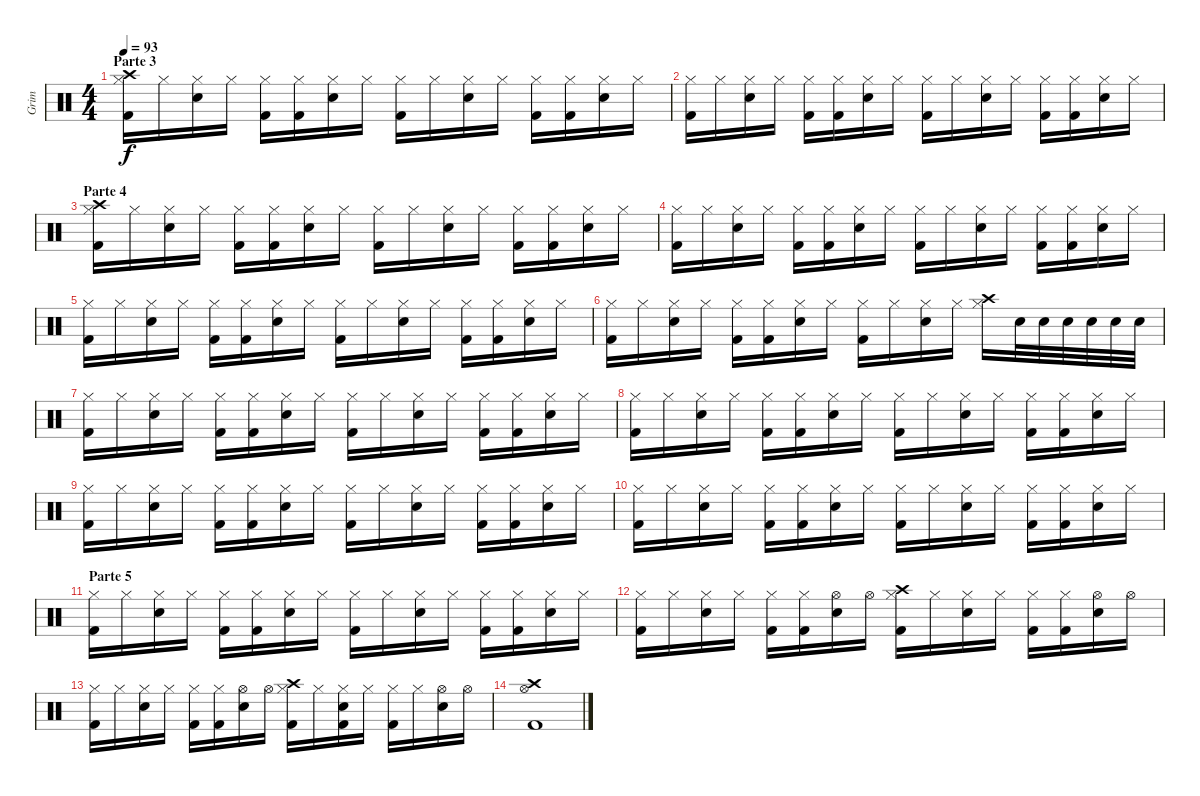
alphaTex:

\track ("Grim" "Grim") {instrument percussion}
\staff {score}
\articulation defaults
\ts (4 4)
\section ("" "Parte 3")
\tempo 93
\clef neutral
\ks c
("Crash high (hit)" "Hi-Hat (closed)" "Kick (hit) 2").16{dy f} "Hi-Hat (closed)".16 ("Snare (hit) 2" "Hi-Hat (closed)").16 "Hi-Hat (closed)".16 ("Hi-Hat (closed)" "Kick (hit) 2").16 ("Hi-Hat (closed)" "Kick (hit) 2").16 ("Snare (hit) 2" "Hi-Hat (closed)").16 "Hi-Hat (closed)".16 ("Hi-Hat (closed)" "Kick (hit) 2").16 "Hi-Hat (closed)".16 ("Snare (hit) 2" "Hi-Hat (closed)").16 "Hi-Hat (closed)".16 ("Hi-Hat (closed)" "Kick (hit) 2").16 ("Hi-Hat (closed)" "Kick (hit) 2").16 ("Snare (hit) 2" "Hi-Hat (closed)").16 "Hi-Hat (closed)".16 |
("Hi-Hat (closed)" "Kick (hit) 2").16 "Hi-Hat (closed)".16 ("Snare (hit) 2" "Hi-Hat (closed)").16 "Hi-Hat (closed)".16 ("Hi-Hat (closed)" "Kick (hit) 2").16 ("Hi-Hat (closed)" "Kick (hit) 2").16 ("Snare (hit) 2" "Hi-Hat (closed)").16 "Hi-Hat (closed)".16 ("Hi-Hat (closed)" "Kick (hit) 2").16 "Hi-Hat (closed)".16 ("Snare (hit) 2" "Hi-Hat (closed)").16 "Hi-Hat (closed)".16 ("Hi-Hat (closed)" "Kick (hit) 2").16 ("Hi-Hat (closed)" "Kick (hit) 2").16 ("Snare (hit) 2" "Hi-Hat (closed)").16 "Hi-Hat (closed)".16 |
\section ("" "Parte 4")
("Crash high (hit)" "Hi-Hat (closed)" "Kick (hit) 2").16 "Hi-Hat (closed)".16 ("Snare (hit) 2" "Hi-Hat (closed)").16 "Hi-Hat (closed)".16 ("Hi-Hat (closed)" "Kick (hit) 2").16 ("Hi-Hat (closed)" "Kick (hit) 2").16 ("Snare (hit) 2" "Hi-Hat (closed)").16 "Hi-Hat (closed)".16 ("Hi-Hat (closed)" "Kick (hit) 2").16 "Hi-Hat (closed)".16 ("Snare (hit) 2" "Hi-Hat (closed)").16 "Hi-Hat (closed)".16 ("Hi-Hat (closed)" "Kick (hit) 2").16 ("Hi-Hat (closed)" "Kick (hit) 2").16 ("Snare (hit) 2" "Hi-Hat (closed)").16 "Hi-Hat (closed)".16 |
("Hi-Hat (closed)" "Kick (hit) 2").16 "Hi-Hat (closed)".16 ("Snare (hit) 2" "Hi-Hat (closed)").16 "Hi-Hat (closed)".16 ("Hi-Hat (closed)" "Kick (hit) 2").16 ("Hi-Hat (closed)" "Kick (hit) 2").16 ("Snare (hit) 2" "Hi-Hat (closed)").16 "Hi-Hat (closed)".16 ("Hi-Hat (closed)" "Kick (hit) 2").16 "Hi-Hat (closed)".16 ("Snare (hit) 2" "Hi-Hat (closed)").16 "Hi-Hat (closed)".16 ("Hi-Hat (closed)" "Kick (hit) 2").16 ("Hi-Hat (closed)" "Kick (hit) 2").16 ("Snare (hit) 2" "Hi-Hat (closed)").16 "Hi-Hat (closed)".16 |
("Hi-Hat (closed)" "Kick (hit) 2").16 "Hi-Hat (closed)".16 ("Snare (hit) 2" "Hi-Hat (closed)").16 "Hi-Hat (closed)".16 ("Hi-Hat (closed)" "Kick (hit) 2").16 ("Hi-Hat (closed)" "Kick (hit) 2").16 ("Snare (hit) 2" "Hi-Hat (closed)").16 "Hi-Hat (closed)".16 ("Hi-Hat (closed)" "Kick (hit) 2").16 "Hi-Hat (closed)".16 ("Snare (hit) 2" "Hi-Hat (closed)").16 "Hi-Hat (closed)".16 ("Hi-Hat (closed)" "Kick (hit) 2").16 ("Hi-Hat (closed)" "Kick (hit) 2").16 ("Snare (hit) 2" "Hi-Hat (closed)").16 "Hi-Hat (closed)".16 |
("Hi-Hat (closed)" "Kick (hit) 2").16 "Hi-Hat (closed)".16 ("Snare (hit) 2" "Hi-Hat (closed)").16 "Hi-Hat (closed)".16 ("Hi-Hat (closed)" "Kick (hit) 2").16 ("Hi-Hat (closed)" "Kick (hit) 2").16 ("Snare (hit) 2" "Hi-Hat (closed)").16 "Hi-Hat (closed)".16 ("Hi-Hat (closed)" "Kick (hit) 2").16 "Hi-Hat (closed)".16 ("Snare (hit) 2" "Hi-Hat (closed)").16 "Hi-Hat (closed)".16 ("Crash high (hit)" "Hi-Hat (closed)").16 "Snare (hit) 2".32 "Snare (hit) 2".32 "Snare (hit) 2".32 "Snare (hit) 2".32 "Snare (hit) 2".32 "Snare (hit) 2".32 |
("Hi-Hat (closed)" "Kick (hit) 2").16 "Hi-Hat (closed)".16 ("Snare (hit) 2" "Hi-Hat (closed)").16 "Hi-Hat (closed)".16 ("Hi-Hat (closed)" "Kick (hit) 2").16 ("Hi-Hat (closed)" "Kick (hit) 2").16 ("Snare (hit) 2" "Hi-Hat (closed)").16 "Hi-Hat (closed)".16 ("Hi-Hat (closed)" "Kick (hit) 2").16 "Hi-Hat (closed)".16 ("Snare (hit) 2" "Hi-Hat (closed)").16 "Hi-Hat (closed)".16 ("Hi-Hat (closed)" "Kick (hit) 2").16 ("Hi-Hat (closed)" "Kick (hit) 2").16 ("Snare (hit) 2" "Hi-Hat (closed)").16 "Hi-Hat (closed)".16 |
("Hi-Hat (closed)" "Kick (hit) 2").16 "Hi-Hat (closed)".16 ("Snare (hit) 2" "Hi-Hat (closed)").16 "Hi-Hat (closed)".16 ("Hi-Hat (closed)" "Kick (hit) 2").16 ("Hi-Hat (closed)" "Kick (hit) 2").16 ("Snare (hit) 2" "Hi-Hat (closed)").16 "Hi-Hat (closed)".16 ("Hi-Hat (closed)" "Kick (hit) 2").16 "Hi-Hat (closed)".16 ("Snare (hit) 2" "Hi-Hat (closed)").16 "Hi-Hat (closed)".16 ("Hi-Hat (closed)" "Kick (hit) 2").16 ("Hi-Hat (closed)" "Kick (hit) 2").16 ("Snare (hit) 2" "Hi-Hat (closed)").16 "Hi-Hat (closed)".16 |
("Hi-Hat (closed)" "Kick (hit) 2").16 "Hi-Hat (closed)".16 ("Snare (hit) 2" "Hi-Hat (closed)").16 "Hi-Hat (closed)".16 ("Hi-Hat (closed)" "Kick (hit) 2").16 ("Hi-Hat (closed)" "Kick (hit) 2").16 ("Snare (hit) 2" "Hi-Hat (closed)").16 "Hi-Hat (closed)".16 ("Hi-Hat (closed)" "Kick (hit) 2").16 "Hi-Hat (closed)".16 ("Snare (hit) 2" "Hi-Hat (closed)").16 "Hi-Hat (closed)".16 ("Hi-Hat (closed)" "Kick (hit) 2").16 ("Hi-Hat (closed)" "Kick (hit) 2").16 ("Snare (hit) 2" "Hi-Hat (closed)").16 "Hi-Hat (closed)".16 |
("Hi-Hat (closed)" "Kick (hit) 2").16 "Hi-Hat (closed)".16 ("Snare (hit) 2" "Hi-Hat (closed)").16 "Hi-Hat (closed)".16 ("Hi-Hat (closed)" "Kick (hit) 2").16 ("Hi-Hat (closed)" "Kick (hit) 2").16 ("Snare (hit) 2" "Hi-Hat (closed)").16 "Hi-Hat (closed)".16 ("Hi-Hat (closed)" "Kick (hit) 2").16 "Hi-Hat (closed)".16 ("Snare (hit) 2" "Hi-Hat (closed)").16 "Hi-Hat (closed)".16 ("Hi-Hat (closed)" "Kick (hit) 2").16 ("Hi-Hat (closed)" "Kick (hit) 2").16 ("Snare (hit) 2" "Hi-Hat (closed)").16 "Hi-Hat (closed)".16 |
\section ("" "Parte 5")
("Hi-Hat (closed)" "Kick (hit) 2").16 "Hi-Hat (closed)".16 ("Snare (hit) 2" "Hi-Hat (closed)").16 "Hi-Hat (closed)".16 ("Hi-Hat (closed)" "Kick (hit) 2").16 ("Hi-Hat (closed)" "Kick (hit) 2").16 ("Snare (hit) 2" "Hi-Hat (closed)").16 "Hi-Hat (closed)".16 ("Hi-Hat (closed)" "Kick (hit) 2").16 "Hi-Hat (closed)".16 ("Snare (hit) 2" "Hi-Hat (closed)").16 "Hi-Hat (closed)".16 ("Hi-Hat (closed)" "Kick (hit) 2").16 ("Hi-Hat (closed)" "Kick (hit) 2").16 ("Snare (hit) 2" "Hi-Hat (closed)").16 "Hi-Hat (closed)".16 |
("Hi-Hat (closed)" "Kick (hit) 2").16 "Hi-Hat (closed)".16 ("Snare (hit) 2" "Hi-Hat (closed)").16 "Hi-Hat (closed)".16 ("Hi-Hat (closed)" "Kick (hit) 2").16 ("Hi-Hat (closed)" "Kick (hit) 2").16 ("Snare (hit) 2" "Hi-Hat (open)").16 "Hi-Hat (open)".16 ("Crash high (hit)" "Hi-Hat (closed)" "Kick (hit) 2").16 "Hi-Hat (closed)".16 ("Snare (hit) 2" "Hi-Hat (closed)").16 "Hi-Hat (closed)".16 ("Hi-Hat (closed)" "Kick (hit) 2").16 ("Hi-Hat (closed)" "Kick (hit) 2").16 ("Snare (hit) 2" "Hi-Hat (open)").16 "Hi-Hat (open)".16 |
("Hi-Hat (closed)" "Kick (hit) 2").16 "Hi-Hat (closed)".16 ("Snare (hit) 2" "Hi-Hat (closed)").16 "Hi-Hat (closed)".16 ("Hi-Hat (closed)" "Kick (hit) 2").16 ("Hi-Hat (closed)" "Kick (hit) 2").16 ("Snare (hit) 2" "Hi-Hat (open)").16 "Hi-Hat (open)".16 ("Crash high (hit)" "Hi-Hat (closed)" "Kick (hit) 2").16 "Hi-Hat (closed)".16 ("Snare (hit) 2" "Hi-Hat (closed)" "Kick (hit) 2").16 "Hi-Hat (closed)".16 ("Hi-Hat (closed)" "Kick (hit) 2").16 "Hi-Hat (closed)".16 ("Snare (hit) 2" "Hi-Hat (open)").16 "Hi-Hat (open)".16 |
("Crash high (hit)" "Hi-Hat (open)" "Kick (hit) 2").1
